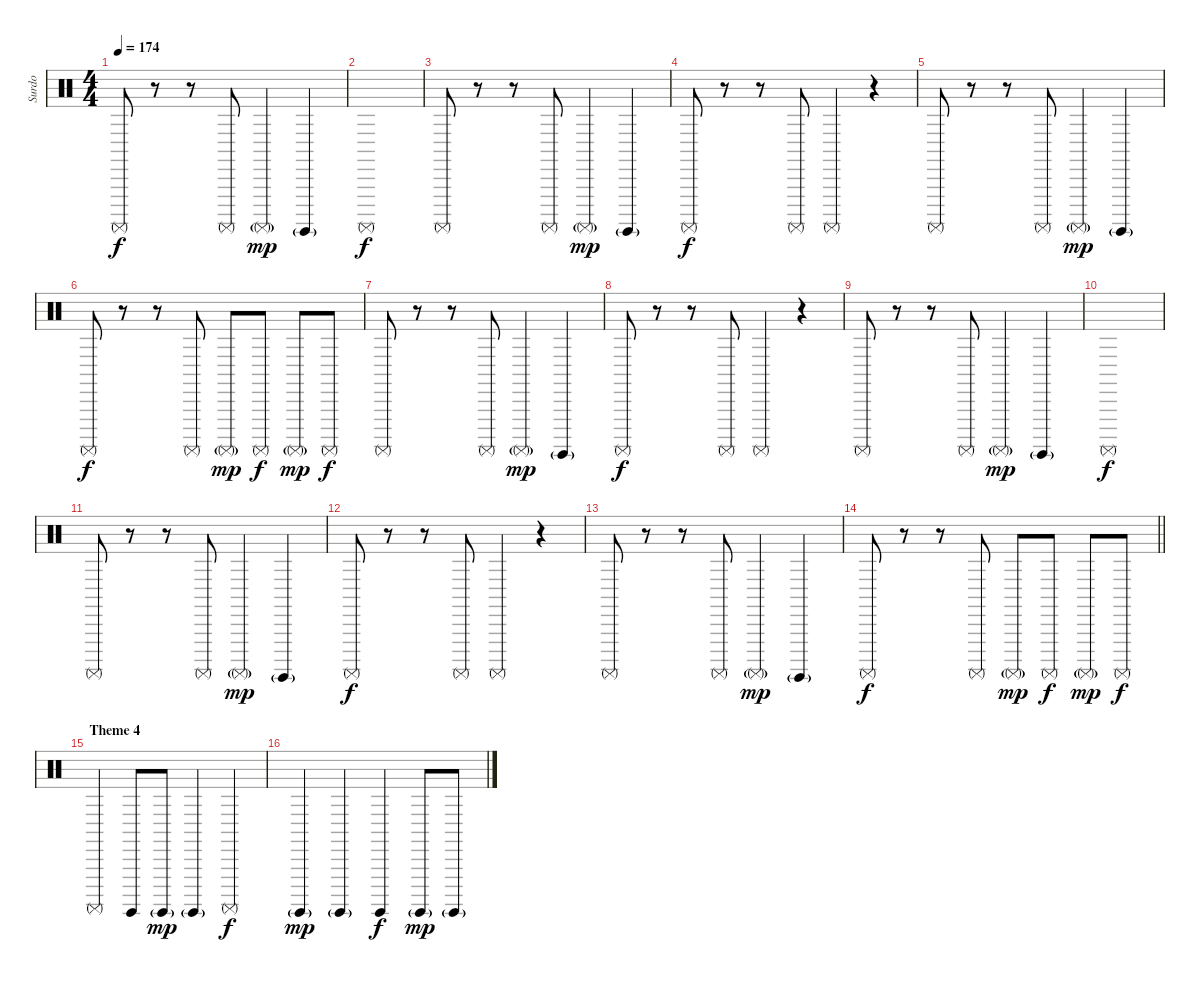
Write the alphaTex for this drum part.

\track ("Surdo" "Surdo") {instrument percussion}
\staff {score}
\articulation defaults
\ts (4 4)
\tempo 174
\clef neutral
\ks c "Surdo (mute)".8{dy f}
r.8 r.8 "Surdo (mute)".8 "Surdo (mute)"{g}.4{dy mp} "Surdo (hit)"{g}.4 |
"Surdo (mute)".1{dy f} |
"Surdo (mute)".8 r.8 r.8 "Surdo (mute)".8 "Surdo (mute)"{g}.4{dy mp} "Surdo (hit)"{g}.4 |
"Surdo (mute)".8{dy f} r.8 r.8 "Surdo (mute)".8 "Surdo (mute)".4 r.4 |
"Surdo (mute)".8 r.8 r.8 "Surdo (mute)".8 "Surdo (mute)"{g}.4{dy mp} "Surdo (hit)"{g}.4 |
"Surdo (mute)".8{dy f} r.8 r.8 "Surdo (mute)".8 "Surdo (mute)"{g}.8{dy mp} "Surdo (mute)".8{dy f} "Surdo (mute)"{g}.8{dy mp} "Surdo (mute)".8{dy f} |
"Surdo (mute)".8 r.8 r.8 "Surdo (mute)".8 "Surdo (mute)"{g}.4{dy mp} "Surdo (hit)"{g}.4 |
"Surdo (mute)".8{dy f} r.8 r.8 "Surdo (mute)".8 "Surdo (mute)".4 r.4 |
"Surdo (mute)".8 r.8 r.8 "Surdo (mute)".8 "Surdo (mute)"{g}.4{dy mp} "Surdo (hit)"{g}.4 |
"Surdo (mute)".1{dy f} |
"Surdo (mute)".8 r.8 r.8 "Surdo (mute)".8 "Surdo (mute)"{g}.4{dy mp} "Surdo (hit)"{g}.4 |
"Surdo (mute)".8{dy f} r.8 r.8 "Surdo (mute)".8 "Surdo (mute)".4 r.4 |
"Surdo (mute)".8 r.8 r.8 "Surdo (mute)".8 "Surdo (mute)"{g}.4{dy mp} "Surdo (hit)"{g}.4 |
\barLineRight lightlight "Surdo (mute)".8{dy f}
r.8 r.8 "Surdo (mute)".8 "Surdo (mute)"{g}.8{dy mp} "Surdo (mute)".8{dy f} "Surdo (mute)"{g}.8{dy mp} "Surdo (mute)".8{dy f} |
\section ("" "Theme 4")
"Surdo (mute)".4 "Surdo (hit)".8 "Surdo (hit)"{g}.8{dy mp} "Surdo (hit)"{g}.4 "Surdo (mute)".4{dy f} |
"Surdo (hit)"{g}.4{dy mp} "Surdo (hit)"{g}.4 "Surdo (hit)".4{dy f} "Surdo (hit)"{g}.8{dy mp} "Surdo (hit)"{g}.8
